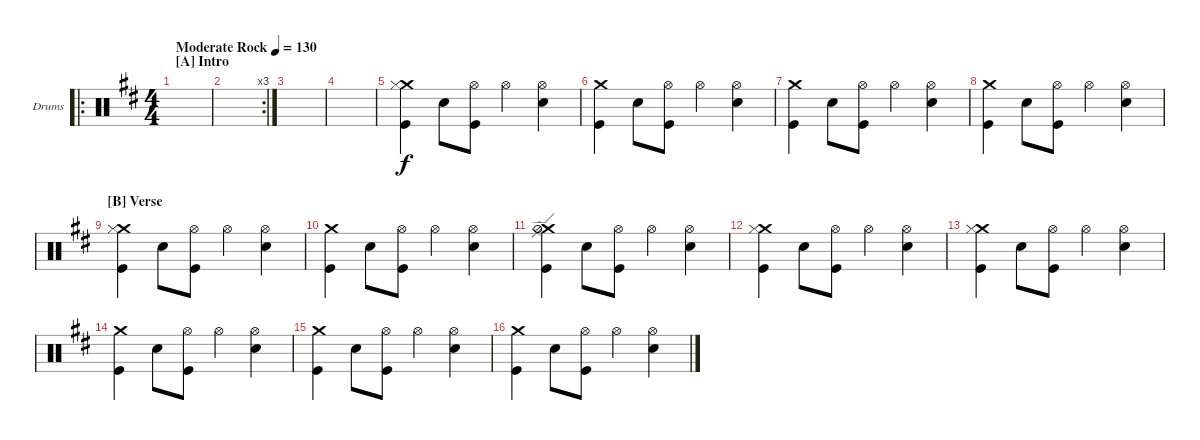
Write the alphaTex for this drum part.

\defaultSystemsLayout 4
\bracketExtendMode groupsimilarinstruments
\firstSystemTrackNameOrientation horizontal
\otherSystemsTrackNameOrientation horizontal
\track ("Drums" "Drums") {instrument percussion}
\staff {score}
\articulation defaults
\ro
\ts (4 4)
\beaming (8 4 4)
\section ("A" "Intro")
\tempo (130 "Moderate Rock")
\clef neutral
\scale
1.08071
\ks d
|
\rc 3
\scale
0.919294 |
\scale
1.05044 |
\scale
0.949559 |
\scale
1.05044 ("Crash medium (hit)" "Kick (hit)" "Hi-Hat (closed)").4 "Snare (hit) 2".8 ("Hi-Hat (open)" "Kick (hit)").8 "Hi-Hat (open)".4 ("Hi-Hat (open)" "Snare (hit) 2").4 |
\scale
0.949559 ("Crash medium (hit)" "Kick (hit)").4 "Snare (hit) 2".8 ("Hi-Hat (open)" "Kick (hit)").8 "Hi-Hat (open)".4 ("Hi-Hat (open)" "Snare (hit) 2").4 |
\scale
1.05044 ("Crash medium (hit)" "Kick (hit)").4 "Snare (hit) 2".8 ("Hi-Hat (open)" "Kick (hit)").8 "Hi-Hat (open)".4 ("Hi-Hat (open)" "Snare (hit) 2").4 |
\scale
0.949559 ("Crash medium (hit)" "Kick (hit)").4 "Snare (hit) 2".8 ("Hi-Hat (open)" "Kick (hit)").8 "Hi-Hat (open)".4 ("Hi-Hat (open)" "Snare (hit) 2").4 |
\section ("B" "Verse")
\scale
1.05044 ("Crash medium (hit)" "Kick (hit)" "Hi-Hat (closed)").4 "Snare (hit) 2".8 ("Hi-Hat (open)" "Kick (hit)").8 "Hi-Hat (open)".4 ("Hi-Hat (open)" "Snare (hit) 2").4 |
\scale
0.949559 ("Crash medium (hit)" "Kick (hit)").4 "Snare (hit) 2".8 ("Hi-Hat (open)" "Kick (hit)").8 "Hi-Hat (open)".4 ("Hi-Hat (open)" "Snare (hit) 2").4 |
\scale
1.05044 ("Crash medium (hit)" "Kick (hit)" "Ride (edge)" "Hi-Hat (half)").4 "Snare (hit) 2".8 ("Hi-Hat (open)" "Kick (hit)").8 "Hi-Hat (open)".4 ("Hi-Hat (open)" "Snare (hit) 2").4 |
\scale
0.949559 ("Crash medium (hit)" "Kick (hit)" "Hi-Hat (closed)").4 "Snare (hit) 2".8 ("Hi-Hat (open)" "Kick (hit)").8 "Hi-Hat (open)".4 ("Hi-Hat (open)" "Snare (hit) 2").4 |
\scale
1.05044 ("Crash medium (hit)" "Kick (hit)" "Hi-Hat (closed)").4 "Snare (hit) 2".8 ("Hi-Hat (open)" "Kick (hit)").8 "Hi-Hat (open)".4 ("Hi-Hat (open)" "Snare (hit) 2").4 |
\scale
0.949559 ("Crash medium (hit)" "Kick (hit)").4 "Snare (hit) 2".8 ("Hi-Hat (open)" "Kick (hit)").8 "Hi-Hat (open)".4 ("Hi-Hat (open)" "Snare (hit) 2").4 |
\scale
1.05044 ("Crash medium (hit)" "Kick (hit)").4 "Snare (hit) 2".8 ("Hi-Hat (open)" "Kick (hit)").8 "Hi-Hat (open)".4 ("Hi-Hat (open)" "Snare (hit) 2").4 |
\scale
0.949559 ("Crash medium (hit)" "Kick (hit)").4 "Snare (hit) 2".8 ("Hi-Hat (open)" "Kick (hit)").8 "Hi-Hat (open)".4 ("Hi-Hat (open)" "Snare (hit) 2").4
